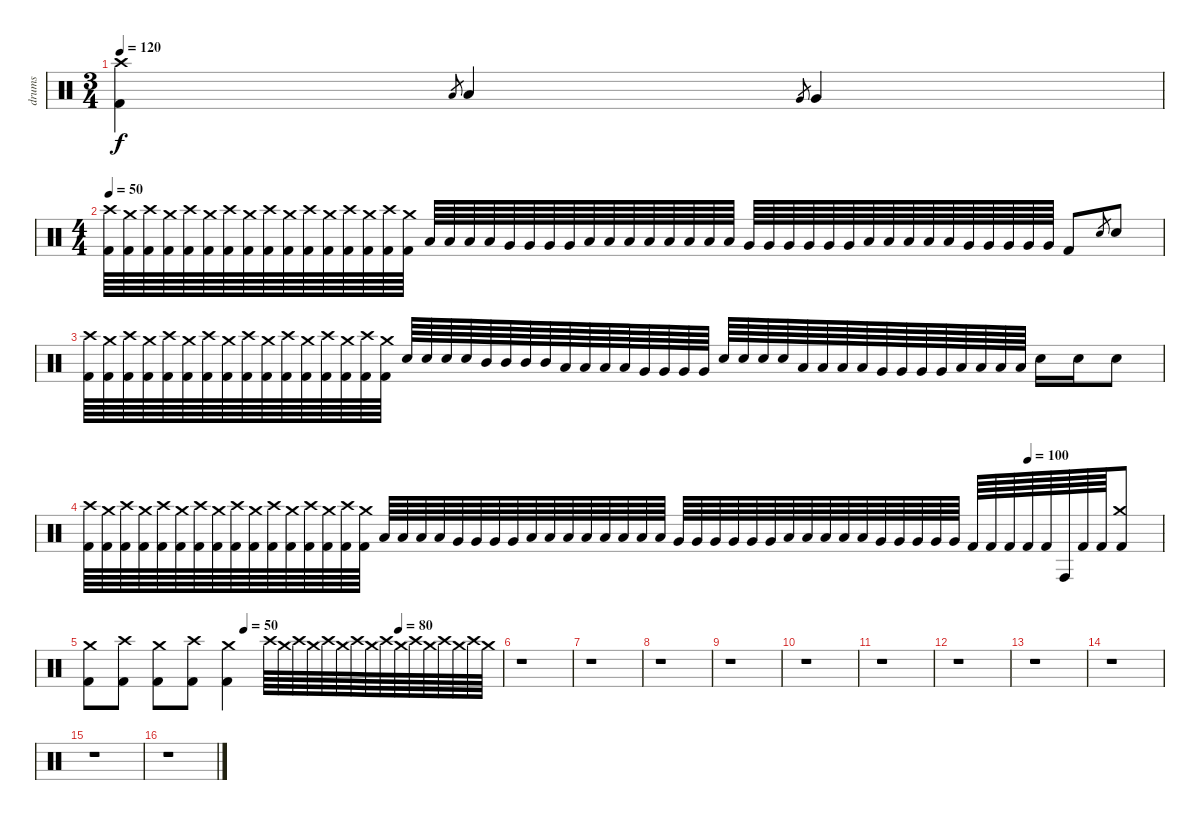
\track ("drums" "drums") {instrument percussion}
\staff {score}
\articulation defaults
\ts (3 4)
\tempo 120
\clef neutral
\ks c
("Crash high (hit)" "Kick (hit) 2").4{dy f} "Low Tom (hit)".8{gr} "Low Tom (hit)".4 "Very Low Tom (hit)".8{gr} "Very Low Tom (hit)".4 |
\ts (4 4)
\tempo 50
("Crash high (hit)" "Kick (hit) 2").64 ("Crash medium (hit)" "Kick (hit) 2").64 ("Crash high (hit)" "Kick (hit) 2").64 ("Crash medium (hit)" "Kick (hit) 2").64 ("Crash high (hit)" "Kick (hit) 2").64 ("Crash medium (hit)" "Kick (hit) 2").64 ("Crash high (hit)" "Kick (hit) 2").64 ("Crash medium (hit)" "Kick (hit) 2").64 ("Crash high (hit)" "Kick (hit) 2").64 ("Crash medium (hit)" "Kick (hit) 2").64 ("Crash high (hit)" "Kick (hit) 2").64 ("Crash medium (hit)" "Kick (hit) 2").64 ("Crash high (hit)" "Kick (hit) 2").64 ("Crash medium (hit)" "Kick (hit) 2").64 ("Crash high (hit)" "Kick (hit) 2").64 ("Crash medium (hit)" "Kick (hit) 2").64 "Low Tom (hit)".64 "Low Tom (hit)".64 "Low Tom (hit)".64 "Low Tom (hit)".64 "Very Low Tom (hit)".64 "Very Low Tom (hit)".64 "Very Low Tom (hit)".64 "Very Low Tom (hit)".64 "Low Floor Tom (hit)".64 "Low Floor Tom (hit)".64 "Low Floor Tom (hit)".64 "Low Floor Tom (hit)".64 "Low Tom (hit)".64 "Low Tom (hit)".64 "Low Tom (hit)".64 "Low Tom (hit)".64 "Very Low Tom (hit)".64 "Very Low Tom (hit)".64 "Very Low Tom (hit)".64 "Very Low Tom (hit)".64 "Very Low Tom (hit)".64 "Very Low Tom (hit)".64 "Low Floor Tom (hit)".64 "Low Floor Tom (hit)".64 "Low Floor Tom (hit)".64 "Low Floor Tom (hit)".64 "Low Floor Tom (hit)".64 "Very Low Tom (hit)".64 "Very Low Tom (hit)".64 "Very Low Tom (hit)".64 "Very Low Tom (hit)".64 "Very Low Tom (hit)".64 "Kick (hit) 2".8 "Electric Snare (hit)".8{gr} "Electric Snare (hit)".8 |
("Crash high (hit)" "Kick (hit) 2").64 ("Crash medium (hit)" "Kick (hit) 2").64 ("Crash high (hit)" "Kick (hit) 2").64 ("Crash medium (hit)" "Kick (hit) 2").64 ("Crash high (hit)" "Kick (hit) 2").64 ("Crash medium (hit)" "Kick (hit) 2").64 ("Crash high (hit)" "Kick (hit) 2").64 ("Crash medium (hit)" "Kick (hit) 2").64 ("Crash high (hit)" "Kick (hit) 2").64 ("Crash medium (hit)" "Kick (hit) 2").64 ("Crash high (hit)" "Kick (hit) 2").64 ("Crash medium (hit)" "Kick (hit) 2").64 ("Crash high (hit)" "Kick (hit) 2").64 ("Crash medium (hit)" "Kick (hit) 2").64 ("Crash high (hit)" "Kick (hit) 2").64 ("Crash medium (hit)" "Kick (hit) 2").64 "Electric Snare (hit)".64 "Electric Snare (hit)".64 "Electric Snare (hit)".64 "Electric Snare (hit)".64 "Mid Tom (hit)".64 "Mid Tom (hit)".64 "Mid Tom (hit)".64 "Mid Tom (hit)".64 "Low Tom (hit)".64 "Low Tom (hit)".64 "Low Tom (hit)".64 "Low Tom (hit)".64 "Very Low Tom (hit)".64 "Very Low Tom (hit)".64 "Very Low Tom (hit)".64 "Very Low Tom (hit)".64 "Electric Snare (hit)".64 "Electric Snare (hit)".64 "Electric Snare (hit)".64 "Electric Snare (hit)".64 "Low Tom (hit)".64 "Low Tom (hit)".64 "Low Tom (hit)".64 "Low Tom (hit)".64 "Very Low Tom (hit)".64 "Very Low Tom (hit)".64 "Very Low Tom (hit)".64 "Very Low Tom (hit)".64 "Low Floor Tom (hit)".64 "Low Floor Tom (hit)".64 "Low Floor Tom (hit)".64 "Low Floor Tom (hit)".64 "Electric Snare (hit)".16 "Electric Snare (hit)".16 "Electric Snare (hit)".8 |
\tempo (100 0.875)
("Crash high (hit)" "Kick (hit) 2").64 ("Crash medium (hit)" "Kick (hit) 2").64 ("Crash high (hit)" "Kick (hit) 2").64 ("Crash medium (hit)" "Kick (hit) 2").64 ("Crash high (hit)" "Kick (hit) 2").64 ("Crash medium (hit)" "Kick (hit) 2").64 ("Crash high (hit)" "Kick (hit) 2").64 ("Crash medium (hit)" "Kick (hit) 2").64 ("Crash high (hit)" "Kick (hit) 2").64 ("Crash medium (hit)" "Kick (hit) 2").64 ("Crash high (hit)" "Kick (hit) 2").64 ("Crash medium (hit)" "Kick (hit) 2").64 ("Crash high (hit)" "Kick (hit) 2").64 ("Crash medium (hit)" "Kick (hit) 2").64 ("Crash high (hit)" "Kick (hit) 2").64 ("Crash medium (hit)" "Kick (hit) 2").64 "Low Tom (hit)".64 "Low Tom (hit)".64 "Low Tom (hit)".64 "Low Tom (hit)".64 "Very Low Tom (hit)".64 "Very Low Tom (hit)".64 "Very Low Tom (hit)".64 "Very Low Tom (hit)".64 "Low Floor Tom (hit)".64 "Low Floor Tom (hit)".64 "Low Floor Tom (hit)".64 "Low Floor Tom (hit)".64 "Low Tom (hit)".64 "Low Tom (hit)".64 "Low Tom (hit)".64 "Low Tom (hit)".64 "Very Low Tom (hit)".64 "Very Low Tom (hit)".64 "Very Low Tom (hit)".64 "Very Low Tom (hit)".64 "Very Low Tom (hit)".64 "Very Low Tom (hit)".64 "Low Floor Tom (hit)".64 "Low Floor Tom (hit)".64 "Low Floor Tom (hit)".64 "Low Floor Tom (hit)".64 "Low Floor Tom (hit)".64 "Very Low Tom (hit)".64 "Very Low Tom (hit)".64 "Very Low Tom (hit)".64 "Very Low Tom (hit)".64 "Very Low Tom (hit)".64 "Kick (hit) 2".64 "Kick (hit) 2".64 "Kick (hit) 2".64 "Kick (hit) 2".64 "Kick (hit) 2".64 "Conga high (hit)".64 "Kick (hit) 2".64 "Kick (hit) 2".64 ("Crash medium (hit)" "Kick (hit) 2").8 |
\tempo (80 0.75)
\tempo (50 0.375)
("Crash medium (hit)" "Kick (hit) 2").8 ("Crash high (hit)" "Kick (hit) 2").8 ("Crash medium (hit)" "Kick (hit) 2").8 ("Crash high (hit)" "Kick (hit) 2").8 ("Crash medium (hit)" "Kick (hit) 2").4 "Crash high (hit)".64 "Crash medium (hit)".64 "Crash high (hit)".64 "Crash medium (hit)".64 "Crash high (hit)".64 "Crash medium (hit)".64 "Crash high (hit)".64 "Crash medium (hit)".64 "Crash high (hit)".64 "Crash medium (hit)".64 "Crash high (hit)".64 "Crash medium (hit)".64 "Crash high (hit)".64 "Crash medium (hit)".64 "Crash high (hit)".64 "Crash medium (hit)".64 |
r.1 |
r.1 |
r.1 |
r.1 |
r.1 |
r.1 |
r.1 |
r.1 |
r.1 |
r.1 |
r.1
